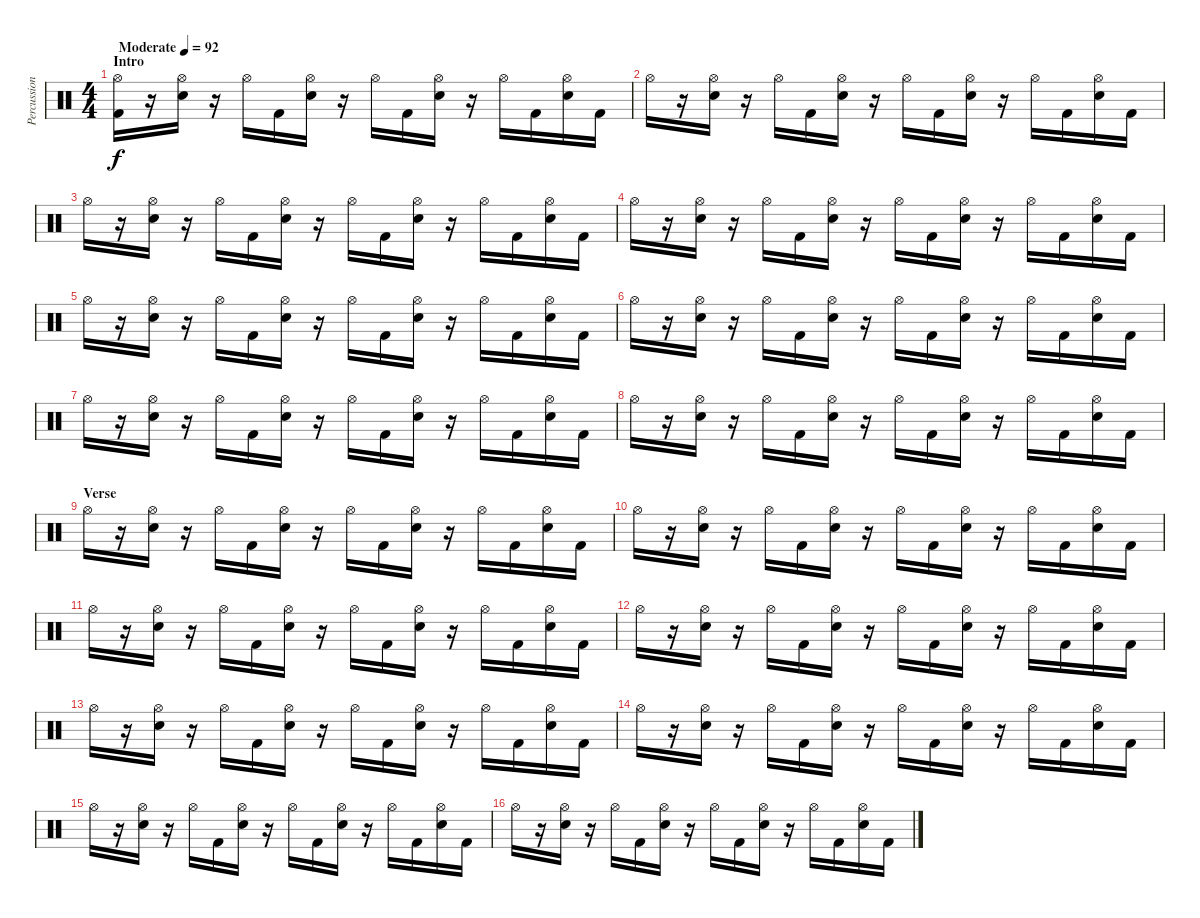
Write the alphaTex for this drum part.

\track ("Percussion" "Percussion") {instrument percussion}
\staff {score}
\articulation defaults
\ts (4 4)
\section ("" "Intro")
\tempo (92 "Moderate")
\clef neutral
\ks c
("Hi-Hat (open)" "Kick (hit) 2").16{dy f} r.16 ("Hi-Hat (open)" "Electric Snare (hit)").16 r.16 "Hi-Hat (open)".16 "Kick (hit) 2".16 ("Hi-Hat (open)" "Electric Snare (hit)").16 r.16 "Hi-Hat (open)".16 "Kick (hit) 2".16 ("Hi-Hat (open)" "Electric Snare (hit)").16 r.16 "Hi-Hat (open)".16 "Kick (hit) 2".16 ("Hi-Hat (open)" "Electric Snare (hit)").16 "Kick (hit) 2".16 |
"Hi-Hat (open)".16 r.16 ("Hi-Hat (open)" "Electric Snare (hit)").16 r.16 "Hi-Hat (open)".16 "Kick (hit) 2".16 ("Hi-Hat (open)" "Electric Snare (hit)").16 r.16 "Hi-Hat (open)".16 "Kick (hit) 2".16 ("Hi-Hat (open)" "Electric Snare (hit)").16 r.16 "Hi-Hat (open)".16 "Kick (hit) 2".16 ("Hi-Hat (open)" "Electric Snare (hit)").16 "Kick (hit) 2".16 |
"Hi-Hat (open)".16 r.16 ("Hi-Hat (open)" "Electric Snare (hit)").16 r.16 "Hi-Hat (open)".16 "Kick (hit) 2".16 ("Hi-Hat (open)" "Electric Snare (hit)").16 r.16 "Hi-Hat (open)".16 "Kick (hit) 2".16 ("Hi-Hat (open)" "Electric Snare (hit)").16 r.16 "Hi-Hat (open)".16 "Kick (hit) 2".16 ("Hi-Hat (open)" "Electric Snare (hit)").16 "Kick (hit) 2".16 |
"Hi-Hat (open)".16 r.16 ("Hi-Hat (open)" "Electric Snare (hit)").16 r.16 "Hi-Hat (open)".16 "Kick (hit) 2".16 ("Hi-Hat (open)" "Electric Snare (hit)").16 r.16 "Hi-Hat (open)".16 "Kick (hit) 2".16 ("Hi-Hat (open)" "Electric Snare (hit)").16 r.16 "Hi-Hat (open)".16 "Kick (hit) 2".16 ("Hi-Hat (open)" "Electric Snare (hit)").16 "Kick (hit) 2".16 |
"Hi-Hat (open)".16 r.16 ("Hi-Hat (open)" "Electric Snare (hit)").16 r.16 "Hi-Hat (open)".16 "Kick (hit) 2".16 ("Hi-Hat (open)" "Electric Snare (hit)").16 r.16 "Hi-Hat (open)".16 "Kick (hit) 2".16 ("Hi-Hat (open)" "Electric Snare (hit)").16 r.16 "Hi-Hat (open)".16 "Kick (hit) 2".16 ("Hi-Hat (open)" "Electric Snare (hit)").16 "Kick (hit) 2".16 |
"Hi-Hat (open)".16 r.16 ("Hi-Hat (open)" "Electric Snare (hit)").16 r.16 "Hi-Hat (open)".16 "Kick (hit) 2".16 ("Hi-Hat (open)" "Electric Snare (hit)").16 r.16 "Hi-Hat (open)".16 "Kick (hit) 2".16 ("Hi-Hat (open)" "Electric Snare (hit)").16 r.16 "Hi-Hat (open)".16 "Kick (hit) 2".16 ("Hi-Hat (open)" "Electric Snare (hit)").16 "Kick (hit) 2".16 |
"Hi-Hat (open)".16 r.16 ("Hi-Hat (open)" "Electric Snare (hit)").16 r.16 "Hi-Hat (open)".16 "Kick (hit) 2".16 ("Hi-Hat (open)" "Electric Snare (hit)").16 r.16 "Hi-Hat (open)".16 "Kick (hit) 2".16 ("Hi-Hat (open)" "Electric Snare (hit)").16 r.16 "Hi-Hat (open)".16 "Kick (hit) 2".16 ("Hi-Hat (open)" "Electric Snare (hit)").16 "Kick (hit) 2".16 |
"Hi-Hat (open)".16 r.16 ("Hi-Hat (open)" "Electric Snare (hit)").16 r.16 "Hi-Hat (open)".16 "Kick (hit) 2".16 ("Hi-Hat (open)" "Electric Snare (hit)").16 r.16 "Hi-Hat (open)".16 "Kick (hit) 2".16 ("Hi-Hat (open)" "Electric Snare (hit)").16 r.16 "Hi-Hat (open)".16 "Kick (hit) 2".16 ("Hi-Hat (open)" "Electric Snare (hit)").16 "Kick (hit) 2".16 |
\section ("" "Verse")
"Hi-Hat (open)".16 r.16 ("Hi-Hat (open)" "Electric Snare (hit)").16 r.16 "Hi-Hat (open)".16 "Kick (hit) 2".16 ("Hi-Hat (open)" "Electric Snare (hit)").16 r.16 "Hi-Hat (open)".16 "Kick (hit) 2".16 ("Hi-Hat (open)" "Electric Snare (hit)").16 r.16 "Hi-Hat (open)".16 "Kick (hit) 2".16 ("Hi-Hat (open)" "Electric Snare (hit)").16 "Kick (hit) 2".16 |
"Hi-Hat (open)".16 r.16 ("Hi-Hat (open)" "Electric Snare (hit)").16 r.16 "Hi-Hat (open)".16 "Kick (hit) 2".16 ("Hi-Hat (open)" "Electric Snare (hit)").16 r.16 "Hi-Hat (open)".16 "Kick (hit) 2".16 ("Hi-Hat (open)" "Electric Snare (hit)").16 r.16 "Hi-Hat (open)".16 "Kick (hit) 2".16 ("Hi-Hat (open)" "Electric Snare (hit)").16 "Kick (hit) 2".16 |
"Hi-Hat (open)".16 r.16 ("Hi-Hat (open)" "Electric Snare (hit)").16 r.16 "Hi-Hat (open)".16 "Kick (hit) 2".16 ("Hi-Hat (open)" "Electric Snare (hit)").16 r.16 "Hi-Hat (open)".16 "Kick (hit) 2".16 ("Hi-Hat (open)" "Electric Snare (hit)").16 r.16 "Hi-Hat (open)".16 "Kick (hit) 2".16 ("Hi-Hat (open)" "Electric Snare (hit)").16 "Kick (hit) 2".16 |
"Hi-Hat (open)".16 r.16 ("Hi-Hat (open)" "Electric Snare (hit)").16 r.16 "Hi-Hat (open)".16 "Kick (hit) 2".16 ("Hi-Hat (open)" "Electric Snare (hit)").16 r.16 "Hi-Hat (open)".16 "Kick (hit) 2".16 ("Hi-Hat (open)" "Electric Snare (hit)").16 r.16 "Hi-Hat (open)".16 "Kick (hit) 2".16 ("Hi-Hat (open)" "Electric Snare (hit)").16 "Kick (hit) 2".16 |
"Hi-Hat (open)".16 r.16 ("Hi-Hat (open)" "Electric Snare (hit)").16 r.16 "Hi-Hat (open)".16 "Kick (hit) 2".16 ("Hi-Hat (open)" "Electric Snare (hit)").16 r.16 "Hi-Hat (open)".16 "Kick (hit) 2".16 ("Hi-Hat (open)" "Electric Snare (hit)").16 r.16 "Hi-Hat (open)".16 "Kick (hit) 2".16 ("Hi-Hat (open)" "Electric Snare (hit)").16 "Kick (hit) 2".16 |
"Hi-Hat (open)".16 r.16 ("Hi-Hat (open)" "Electric Snare (hit)").16 r.16 "Hi-Hat (open)".16 "Kick (hit) 2".16 ("Hi-Hat (open)" "Electric Snare (hit)").16 r.16 "Hi-Hat (open)".16 "Kick (hit) 2".16 ("Hi-Hat (open)" "Electric Snare (hit)").16 r.16 "Hi-Hat (open)".16 "Kick (hit) 2".16 ("Hi-Hat (open)" "Electric Snare (hit)").16 "Kick (hit) 2".16 |
"Hi-Hat (open)".16 r.16 ("Hi-Hat (open)" "Electric Snare (hit)").16 r.16 "Hi-Hat (open)".16 "Kick (hit) 2".16 ("Hi-Hat (open)" "Electric Snare (hit)").16 r.16 "Hi-Hat (open)".16 "Kick (hit) 2".16 ("Hi-Hat (open)" "Electric Snare (hit)").16 r.16 "Hi-Hat (open)".16 "Kick (hit) 2".16 ("Hi-Hat (open)" "Electric Snare (hit)").16 "Kick (hit) 2".16 |
"Hi-Hat (open)".16 r.16 ("Hi-Hat (open)" "Electric Snare (hit)").16 r.16 "Hi-Hat (open)".16 "Kick (hit) 2".16 ("Hi-Hat (open)" "Electric Snare (hit)").16 r.16 "Hi-Hat (open)".16 "Kick (hit) 2".16 ("Hi-Hat (open)" "Electric Snare (hit)").16 r.16 "Hi-Hat (open)".16 "Kick (hit) 2".16 ("Hi-Hat (open)" "Electric Snare (hit)").16 "Kick (hit) 2".16
